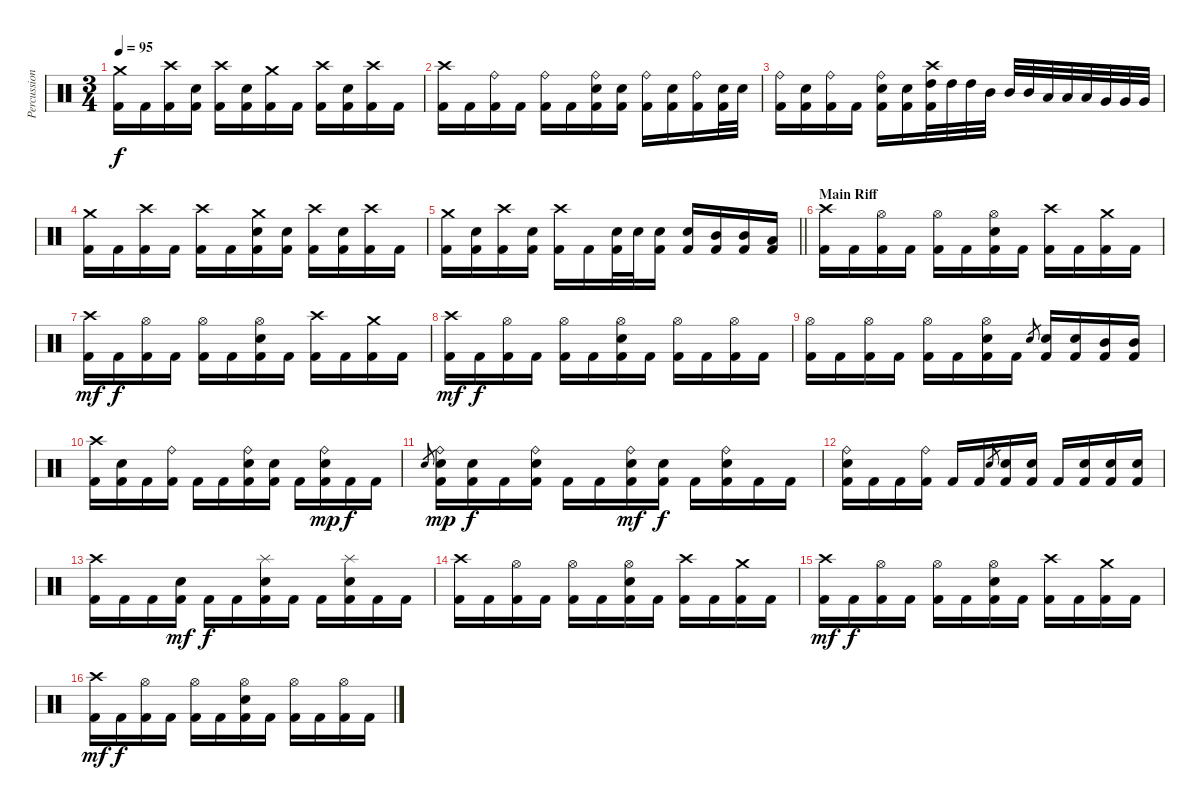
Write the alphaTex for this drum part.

\track ("Percussion" "Percussion") {instrument percussion}
\staff {score}
\articulation defaults
\ts (3 4)
\tempo 95
\clef neutral
\ks c
("Crash medium (hit)" "Kick (hit) 2").16{dy f} "Kick (hit) 2".16 ("Crash high (hit)" "Kick (hit) 2").16 ("Electric Snare (hit)" "Kick (hit) 2").16 ("Crash high (hit)" "Kick (hit) 2").16 ("Electric Snare (hit)" "Kick (hit) 2").16 ("Crash medium (hit)" "Kick (hit) 2").16 "Kick (hit) 2".16 ("Crash high (hit)" "Kick (hit) 2").16 ("Electric Snare (hit)" "Kick (hit) 2").16 ("Crash high (hit)" "Kick (hit) 2").16 "Kick (hit) 2".16 |
("Crash high (hit)" "Kick (hit) 2").16 "Kick (hit) 2".16 ("Ride (bell)" "Kick (hit) 2").16 "Kick (hit) 2".16 ("Ride (bell)" "Kick (hit) 2").16 "Kick (hit) 2".16 ("Ride (bell)" "Electric Snare (hit)" "Kick (hit) 2").16 ("Electric Snare (hit)" "Kick (hit) 2").16 ("Ride (bell)" "Kick (hit) 2").16 ("Electric Snare (hit)" "Kick (hit) 2").16 ("Ride (bell)" "Kick (hit) 2").16 ("Electric Snare (hit)" "Kick (hit) 2").32 "Electric Snare (hit)".32 |
("Ride (bell)" "Kick (hit) 2").16 ("Electric Snare (hit)" "Kick (hit) 2").16 ("Ride (bell)" "Kick (hit) 2").16 "Kick (hit) 2".16 ("Ride (bell)" "Electric Snare (hit)" "Kick (hit) 2").16 ("Electric Snare (hit)" "Kick (hit) 2").16 ("Crash high (hit)" "High Tom (hit)" "Kick (hit) 2").32 "High Tom (hit)".32 "High Tom (hit)".32 "Mid Tom (hit)".32 "Mid Tom (hit)".32 "Mid Tom (hit)".32 "Low Tom (hit)".32 "Low Tom (hit)".32 "Low Tom (hit)".32 "Very Low Tom (hit)".32 "Very Low Tom (hit)".32 "Very Low Tom (hit)".32 |
("Crash medium (hit)" "Kick (hit) 2").16 "Kick (hit) 2".16 ("Crash high (hit)" "Kick (hit) 2").16 "Kick (hit) 2".16 ("Crash high (hit)" "Kick (hit) 2").16 "Kick (hit) 2".16 ("Crash medium (hit)" "Electric Snare (hit)" "Kick (hit) 2").16 ("Electric Snare (hit)" "Kick (hit) 2").16 ("Crash high (hit)" "Kick (hit) 2").16 ("Electric Snare (hit)" "Kick (hit) 2").16 ("Crash high (hit)" "Kick (hit) 2").16 "Kick (hit) 2".16 |
\barLineRight lightlight
("Crash medium (hit)" "Kick (hit) 2").16 ("Electric Snare (hit)" "Kick (hit) 2").16 ("Crash high (hit)" "Kick (hit) 2").16 ("Electric Snare (hit)" "Kick (hit) 2").16 ("Crash high (hit)" "Kick (hit) 2").16 "Kick (hit) 2".16 ("Electric Snare (hit)" "Kick (hit) 2").32 "Electric Snare (hit)".32 ("Electric Snare (hit)" "Kick (hit) 2").16 ("Electric Snare (hit)" "Kick (hit) 2").16 ("Mid Tom (hit)" "Kick (hit) 2").16 ("Mid Tom (hit)" "Kick (hit) 2").16 ("Low Tom (hit)" "Kick (hit) 2").16 |
\section ("" "Main Riff")
("Crash high (hit)" "Kick (hit) 2").16 "Kick (hit) 2".16 ("Hi-Hat (open)" "Kick (hit) 2").16 "Kick (hit) 2".16 ("Hi-Hat (open)" "Kick (hit) 2").16 "Kick (hit) 2".16 ("Hi-Hat (open)" "Electric Snare (hit)" "Kick (hit) 2").16 "Kick (hit) 2".16 ("Crash high (hit)" "Kick (hit) 2").16 "Kick (hit) 2".16 ("Crash medium (hit)" "Kick (hit) 2").16 "Kick (hit) 2".16 |
("Crash high (hit)" "Kick (hit) 2").16{dy mf} "Kick (hit) 2".16{dy f} ("Hi-Hat (open)" "Kick (hit) 2").16 "Kick (hit) 2".16 ("Hi-Hat (open)" "Kick (hit) 2").16 "Kick (hit) 2".16 ("Hi-Hat (open)" "Electric Snare (hit)" "Kick (hit) 2").16 "Kick (hit) 2".16 ("Crash high (hit)" "Kick (hit) 2").16 "Kick (hit) 2".16 ("Crash medium (hit)" "Kick (hit) 2").16 "Kick (hit) 2".16 |
("Crash high (hit)" "Kick (hit) 2").16{dy mf} "Kick (hit) 2".16{dy f} ("Hi-Hat (open)" "Kick (hit) 2").16 "Kick (hit) 2".16 ("Hi-Hat (open)" "Kick (hit) 2").16 "Kick (hit) 2".16 ("Hi-Hat (open)" "Electric Snare (hit)" "Kick (hit) 2").16 "Kick (hit) 2".16 ("Hi-Hat (open)" "Kick (hit) 2").16 "Kick (hit) 2".16 ("Hi-Hat (open)" "Kick (hit) 2").16 "Kick (hit) 2".16 |
("Hi-Hat (open)" "Kick (hit) 2").16 "Kick (hit) 2".16 ("Hi-Hat (open)" "Kick (hit) 2").16 "Kick (hit) 2".16 ("Hi-Hat (open)" "Kick (hit) 2").16 "Kick (hit) 2".16 ("Hi-Hat (open)" "Electric Snare (hit)" "Kick (hit) 2").16 "Kick (hit) 2".16 "Electric Snare (hit)".8{gr} ("Electric Snare (hit)" "Kick (hit) 2").16 ("Electric Snare (hit)" "Kick (hit) 2").16 ("Mid Tom (hit)" "Kick (hit) 2").16 ("Mid Tom (hit)" "Kick (hit) 2").16 |
("Crash high (hit)" "Kick (hit) 2").16 ("Electric Snare (hit)" "Kick (hit) 2").16 "Kick (hit) 2".16 ("Ride (bell)" "Kick (hit) 2").16 "Kick (hit) 2".16 "Kick (hit) 2".16 ("Ride (bell)" "Electric Snare (hit)" "Kick (hit) 2").16 ("Electric Snare (hit)" "Kick (hit) 2").16 "Kick (hit) 2".16 ("Ride (bell)" "Electric Snare (hit)" "Kick (hit) 2").16{dy mp} "Kick (hit) 2".16{dy f} "Kick (hit) 2".16 |
"Electric Snare (hit)".8{gr} ("Ride (bell)" "Electric Snare (hit)" "Kick (hit) 2").16{dy mp} ("Electric Snare (hit)" "Kick (hit) 2").16{dy f} "Kick (hit) 2".16 ("Ride (bell)" "Electric Snare (hit)" "Kick (hit) 2").16 "Kick (hit) 2".16 "Kick (hit) 2".16 ("Ride (bell)" "Electric Snare (hit)" "Kick (hit) 2").16{dy mf} ("Electric Snare (hit)" "Kick (hit) 2").16{dy f} "Kick (hit) 2".16 ("Ride (bell)" "Electric Snare (hit)" "Kick (hit) 2").16 "Kick (hit) 2".16 "Kick (hit) 2".16 |
("Ride (bell)" "Electric Snare (hit)" "Kick (hit) 2").16 "Kick (hit) 2".16 "Kick (hit) 2".16 ("Ride (bell)" "Kick (hit) 2").16 "Kick (hit) 2".16 "Kick (hit) 2".16 "Electric Snare (hit)".8{gr} ("Electric Snare (hit)" "Kick (hit) 2").16 ("Electric Snare (hit)" "Kick (hit) 2").16 "Kick (hit) 2".16 ("Electric Snare (hit)" "Kick (hit) 2").16 ("Electric Snare (hit)" "Kick (hit) 2").16 ("Electric Snare (hit)" "Kick (hit) 2").16 |
("Crash high (hit)" "Kick (hit) 2").16 "Kick (hit) 2".16 "Kick (hit) 2".16 ("Electric Snare (hit)" "Kick (hit) 2").16{dy mf} "Kick (hit) 2".16{dy f} "Kick (hit) 2".16 ("Splash (hit)" "Electric Snare (hit)" "Kick (hit) 2").16 "Kick (hit) 2".16 "Kick (hit) 2".16 ("Splash (hit)" "Electric Snare (hit)" "Kick (hit) 2").16 "Kick (hit) 2".16 "Kick (hit) 2".16 |
("Crash high (hit)" "Kick (hit) 2").16 "Kick (hit) 2".16 ("Hi-Hat (open)" "Kick (hit) 2").16 "Kick (hit) 2".16 ("Hi-Hat (open)" "Kick (hit) 2").16 "Kick (hit) 2".16 ("Hi-Hat (open)" "Electric Snare (hit)" "Kick (hit) 2").16 "Kick (hit) 2".16 ("Crash high (hit)" "Kick (hit) 2").16 "Kick (hit) 2".16 ("Crash medium (hit)" "Kick (hit) 2").16 "Kick (hit) 2".16 |
("Crash high (hit)" "Kick (hit) 2").16{dy mf} "Kick (hit) 2".16{dy f} ("Hi-Hat (open)" "Kick (hit) 2").16 "Kick (hit) 2".16 ("Hi-Hat (open)" "Kick (hit) 2").16 "Kick (hit) 2".16 ("Hi-Hat (open)" "Electric Snare (hit)" "Kick (hit) 2").16 "Kick (hit) 2".16 ("Crash high (hit)" "Kick (hit) 2").16 "Kick (hit) 2".16 ("Crash medium (hit)" "Kick (hit) 2").16 "Kick (hit) 2".16 |
("Crash high (hit)" "Kick (hit) 2").16{dy mf} "Kick (hit) 2".16{dy f} ("Hi-Hat (open)" "Kick (hit) 2").16 "Kick (hit) 2".16 ("Hi-Hat (open)" "Kick (hit) 2").16 "Kick (hit) 2".16 ("Hi-Hat (open)" "Electric Snare (hit)" "Kick (hit) 2").16 "Kick (hit) 2".16 ("Hi-Hat (open)" "Kick (hit) 2").16 "Kick (hit) 2".16 ("Hi-Hat (open)" "Kick (hit) 2").16 "Kick (hit) 2".16
